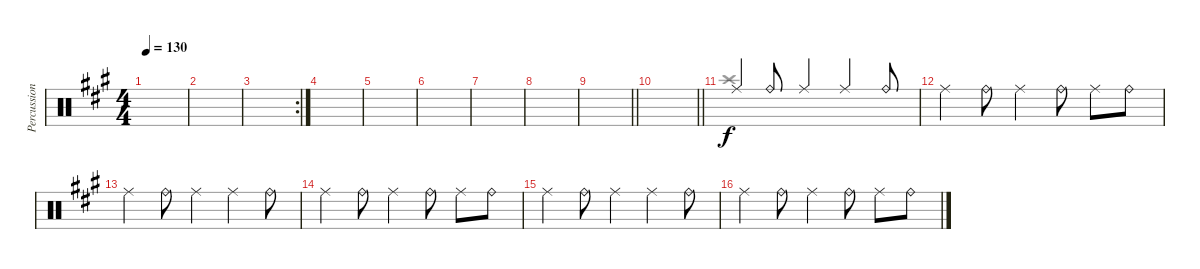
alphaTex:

\track ("Percussion" "Percussion") {instrument percussion}
\staff {score}
\articulation defaults
\voice
\ts (4 4)
\tempo 130
\clef neutral
\ks a
|
|
\rc 2
|
|
|
|
|
|
\barLineRight lightlight
|
\barLineRight lightlight
|
"Ride (middle)".4{balance 16} "Ride (bell)".8 "Ride (middle)".4 "Ride (middle)".4 "Ride (bell)".8 |
"Ride (middle)".4 "Ride (bell)".8 "Ride (middle)".4 "Ride (bell)".8 "Ride (middle)".8 "Ride (bell)".8 |
"Ride (middle)".4{balance 0} "Ride (bell)".8 "Ride (middle)".4 "Ride (middle)".4 "Ride (bell)".8 |
"Ride (middle)".4 "Ride (bell)".8 "Ride (middle)".4 "Ride (bell)".8 "Ride (middle)".8 "Ride (bell)".8 |
"Ride (middle)".4{balance 16} "Ride (bell)".8 "Ride (middle)".4 "Ride (middle)".4 "Ride (bell)".8 |
"Ride (middle)".4 "Ride (bell)".8 "Ride (middle)".4 "Ride (bell)".8 "Ride (middle)".8 "Ride (bell)".8
\voice
\clef neutral
\ottava regular
\simile none
\ks a
|
|
|
|
|
|
|
|
\barLineRight lightlight
|
\barLineRight lightlight
|
"Crash high (hit)".1 |
|
|
|
|
